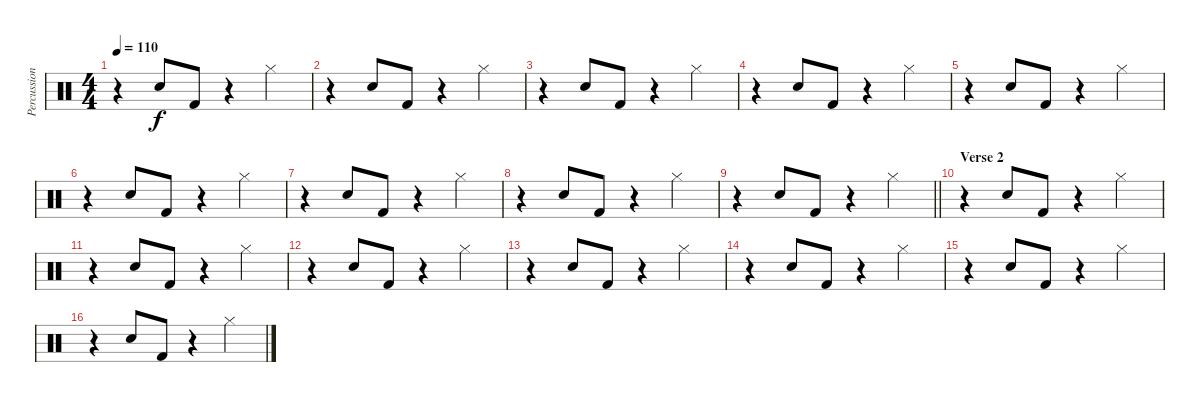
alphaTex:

\track ("Percussion" "Percussion") {instrument percussion}
\staff {score}
\articulation defaults
\ts (4 4)
\tempo 110
\clef neutral
\ks c
r.4{dy f} "Snare (hit) 2".8 "Kick (hit) 2".8 r.4 "Hi-Hat (closed)".4 |
r.4 "Snare (hit) 2".8 "Kick (hit) 2".8 r.4 "Hi-Hat (closed)".4 |
r.4 "Snare (hit) 2".8 "Kick (hit) 2".8 r.4 "Hi-Hat (closed)".4 |
r.4 "Snare (hit) 2".8 "Kick (hit) 2".8 r.4 "Hi-Hat (closed)".4 |
r.4 "Snare (hit) 2".8 "Kick (hit) 2".8 r.4 "Hi-Hat (closed)".4 |
r.4 "Snare (hit) 2".8 "Kick (hit) 2".8 r.4 "Hi-Hat (closed)".4 |
r.4 "Snare (hit) 2".8 "Kick (hit) 2".8 r.4 "Hi-Hat (closed)".4 |
r.4 "Snare (hit) 2".8 "Kick (hit) 2".8 r.4 "Hi-Hat (closed)".4 |
\barLineRight lightlight
r.4 "Snare (hit) 2".8 "Kick (hit) 2".8 r.4 "Hi-Hat (closed)".4 |
\section ("" "Verse 2")
r.4 "Snare (hit) 2".8 "Kick (hit) 2".8 r.4 "Hi-Hat (closed)".4 |
r.4 "Snare (hit) 2".8 "Kick (hit) 2".8 r.4 "Hi-Hat (closed)".4 |
r.4 "Snare (hit) 2".8 "Kick (hit) 2".8 r.4 "Hi-Hat (closed)".4 |
r.4 "Snare (hit) 2".8 "Kick (hit) 2".8 r.4 "Hi-Hat (closed)".4 |
r.4 "Snare (hit) 2".8 "Kick (hit) 2".8 r.4 "Hi-Hat (closed)".4 |
r.4 "Snare (hit) 2".8 "Kick (hit) 2".8 r.4 "Hi-Hat (closed)".4 |
r.4 "Snare (hit) 2".8 "Kick (hit) 2".8 r.4 "Hi-Hat (closed)".4
